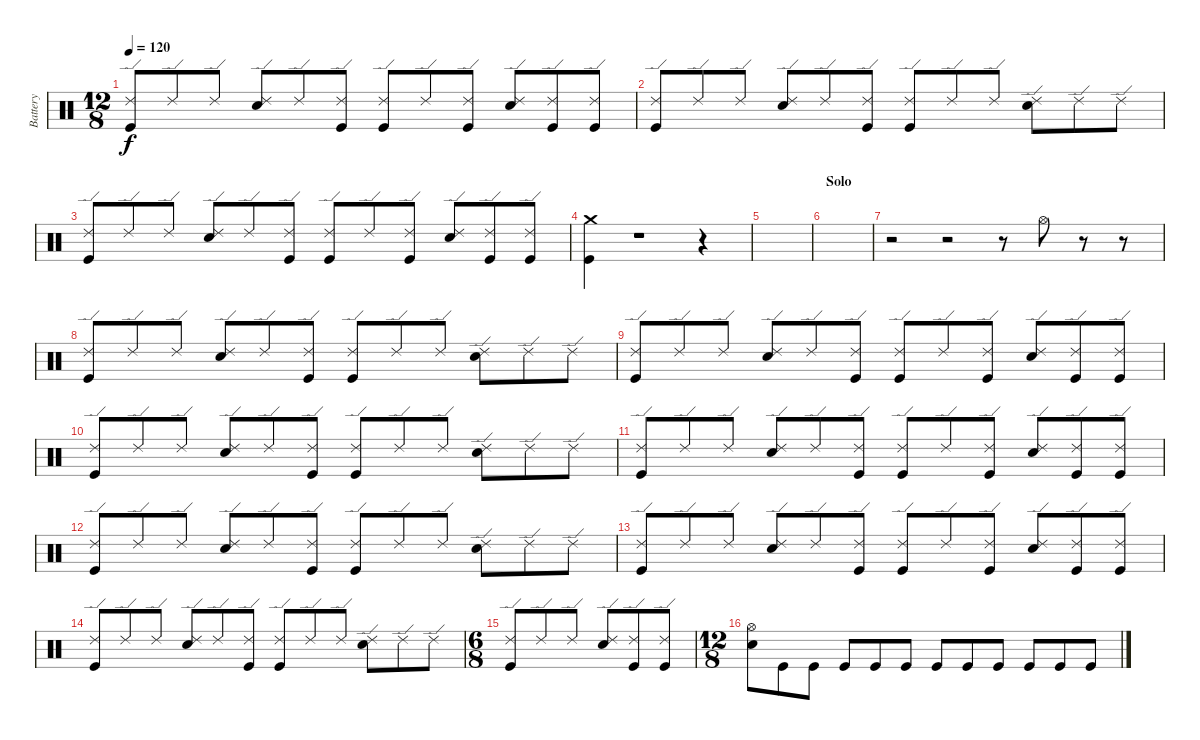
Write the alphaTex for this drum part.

\track ("Battery" "Battery") {instrument percussion}
\staff {score}
\articulation defaults
\ts (12 8)
\tempo 120
\clef neutral
\ks c
("Ride (edge) 2" "Kick (hit)").8{dy f} "Ride (edge) 2".8 "Ride (edge) 2".8 ("Ride (edge) 2" "Electric Snare (hit)").8 "Ride (edge) 2".8 ("Ride (edge) 2" "Kick (hit)").8 ("Ride (edge) 2" "Kick (hit)").8 "Ride (edge) 2".8 ("Ride (edge) 2" "Kick (hit)").8 ("Ride (edge) 2" "Electric Snare (hit)").8 ("Ride (edge) 2" "Kick (hit)").8 ("Ride (edge) 2" "Kick (hit)").8 |
("Ride (edge) 2" "Kick (hit)").8 "Ride (edge) 2".8 "Ride (edge) 2".8 ("Ride (edge) 2" "Electric Snare (hit)").8 "Ride (edge) 2".8 ("Ride (edge) 2" "Kick (hit)").8 ("Ride (edge) 2" "Kick (hit)").8 "Ride (edge) 2".8 "Ride (edge) 2".8 ("Ride (edge) 2" "Electric Snare (hit)").8 "Ride (edge) 2".8 "Ride (edge) 2".8 |
("Ride (edge) 2" "Kick (hit)").8 "Ride (edge) 2".8 "Ride (edge) 2".8 ("Ride (edge) 2" "Electric Snare (hit)").8 "Ride (edge) 2".8 ("Ride (edge) 2" "Kick (hit)").8 ("Ride (edge) 2" "Kick (hit)").8 "Ride (edge) 2".8 ("Ride (edge) 2" "Kick (hit)").8 ("Ride (edge) 2" "Electric Snare (hit)").8 ("Ride (edge) 2" "Kick (hit)").8 ("Ride (edge) 2" "Kick (hit)").8 |
("Crash medium (hit)" "Kick (hit)").4 r.1 r.4 |
|
\section ("" "Solo")
|
r.2 r.2 r.8 "Hi-Hat (open)".8 r.8 r.8 |
("Ride (edge) 2" "Kick (hit)").8 "Ride (edge) 2".8 "Ride (edge) 2".8 ("Ride (edge) 2" "Electric Snare (hit)").8 "Ride (edge) 2".8 ("Ride (edge) 2" "Kick (hit)").8 ("Ride (edge) 2" "Kick (hit)").8 "Ride (edge) 2".8 "Ride (edge) 2".8 ("Ride (edge) 2" "Electric Snare (hit)").8 "Ride (edge) 2".8 "Ride (edge) 2".8 |
("Ride (edge) 2" "Kick (hit)").8 "Ride (edge) 2".8 "Ride (edge) 2".8 ("Ride (edge) 2" "Electric Snare (hit)").8 "Ride (edge) 2".8 ("Ride (edge) 2" "Kick (hit)").8 ("Ride (edge) 2" "Kick (hit)").8 "Ride (edge) 2".8 ("Ride (edge) 2" "Kick (hit)").8 ("Ride (edge) 2" "Electric Snare (hit)").8 ("Ride (edge) 2" "Kick (hit)").8 ("Ride (edge) 2" "Kick (hit)").8 |
("Ride (edge) 2" "Kick (hit)").8 "Ride (edge) 2".8 "Ride (edge) 2".8 ("Ride (edge) 2" "Electric Snare (hit)").8 "Ride (edge) 2".8 ("Ride (edge) 2" "Kick (hit)").8 ("Ride (edge) 2" "Kick (hit)").8 "Ride (edge) 2".8 "Ride (edge) 2".8 ("Ride (edge) 2" "Electric Snare (hit)").8 "Ride (edge) 2".8 "Ride (edge) 2".8 |
("Ride (edge) 2" "Kick (hit)").8 "Ride (edge) 2".8 "Ride (edge) 2".8 ("Ride (edge) 2" "Electric Snare (hit)").8 "Ride (edge) 2".8 ("Ride (edge) 2" "Kick (hit)").8 ("Ride (edge) 2" "Kick (hit)").8 "Ride (edge) 2".8 ("Ride (edge) 2" "Kick (hit)").8 ("Ride (edge) 2" "Electric Snare (hit)").8 ("Ride (edge) 2" "Kick (hit)").8 ("Ride (edge) 2" "Kick (hit)").8 |
("Ride (edge) 2" "Kick (hit)").8 "Ride (edge) 2".8 "Ride (edge) 2".8 ("Ride (edge) 2" "Electric Snare (hit)").8 "Ride (edge) 2".8 ("Ride (edge) 2" "Kick (hit)").8 ("Ride (edge) 2" "Kick (hit)").8 "Ride (edge) 2".8 "Ride (edge) 2".8 ("Ride (edge) 2" "Electric Snare (hit)").8 "Ride (edge) 2".8 "Ride (edge) 2".8 |
("Ride (edge) 2" "Kick (hit)").8 "Ride (edge) 2".8 "Ride (edge) 2".8 ("Ride (edge) 2" "Electric Snare (hit)").8 "Ride (edge) 2".8 ("Ride (edge) 2" "Kick (hit)").8 ("Ride (edge) 2" "Kick (hit)").8 "Ride (edge) 2".8 ("Ride (edge) 2" "Kick (hit)").8 ("Ride (edge) 2" "Electric Snare (hit)").8 ("Ride (edge) 2" "Kick (hit)").8 ("Ride (edge) 2" "Kick (hit)").8 |
("Ride (edge) 2" "Kick (hit)").8 "Ride (edge) 2".8 "Ride (edge) 2".8 ("Ride (edge) 2" "Electric Snare (hit)").8 "Ride (edge) 2".8 ("Ride (edge) 2" "Kick (hit)").8 ("Ride (edge) 2" "Kick (hit)").8 "Ride (edge) 2".8 "Ride (edge) 2".8 ("Ride (edge) 2" "Electric Snare (hit)").8 "Ride (edge) 2".8 "Ride (edge) 2".8 |
\ts (6 8)
("Ride (edge) 2" "Kick (hit)").8 "Ride (edge) 2".8 "Ride (edge) 2".8 ("Ride (edge) 2" "Electric Snare (hit)").8 ("Ride (edge) 2" "Kick (hit)").8 ("Ride (edge) 2" "Kick (hit)").8 |
\ts (12 8)
("Hi-Hat (open)" "Electric Snare (hit)").8 "Kick (hit)".8 "Kick (hit)".8 "Kick (hit)".8 "Kick (hit)".8 "Kick (hit)".8 "Kick (hit)".8 "Kick (hit)".8 "Kick (hit)".8 "Kick (hit)".8 "Kick (hit)".8 "Kick (hit)".8
